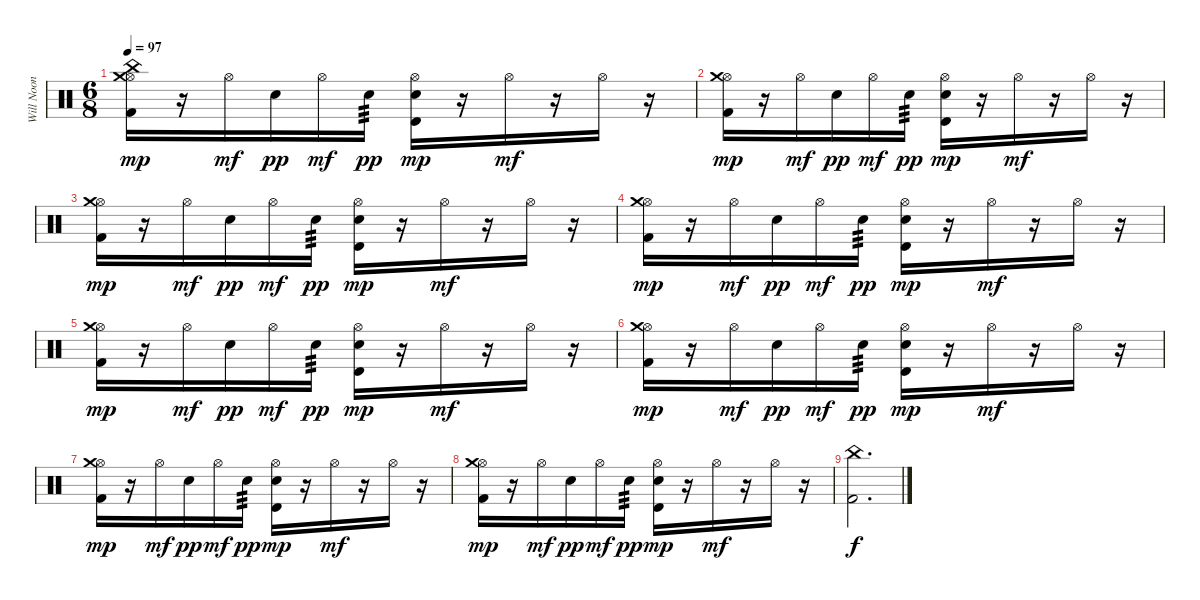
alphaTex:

\track ("Will Noon" "Will Noon") {instrument percussion}
\staff {score}
\articulation defaults
\ts (6 8)
\tempo 97
\clef neutral
\ks c
("Hi-Hat (open)" "Crash medium (hit)" "China (hit)" "Kick (hit) 2").16{dy mp} r.16 "Hi-Hat (open)".16{dy mf} "Electric Snare (hit)".16{dy pp} "Hi-Hat (open)".16{dy mf} "Electric Snare (hit)".16{tp 3 dy pp} ("Hi-Hat (open)" "Timbale high (hit)" "Electric Snare (hit)").16{dy mp} r.16 "Hi-Hat (open)".16{dy mf} r.16 "Hi-Hat (open)".16 r.16 |
("Hi-Hat (open)" "Crash medium (hit)" "Kick (hit) 2").16{dy mp} r.16 "Hi-Hat (open)".16{dy mf} "Electric Snare (hit)".16{dy pp} "Hi-Hat (open)".16{dy mf} "Electric Snare (hit)".16{tp 3 dy pp} ("Hi-Hat (open)" "Timbale high (hit)" "Electric Snare (hit)").16{dy mp} r.16 "Hi-Hat (open)".16{dy mf} r.16 "Hi-Hat (open)".16 r.16 |
("Hi-Hat (open)" "Crash medium (hit)" "Kick (hit) 2").16{dy mp} r.16 "Hi-Hat (open)".16{dy mf} "Electric Snare (hit)".16{dy pp} "Hi-Hat (open)".16{dy mf} "Electric Snare (hit)".16{tp 3 dy pp} ("Hi-Hat (open)" "Timbale high (hit)" "Electric Snare (hit)").16{dy mp} r.16 "Hi-Hat (open)".16{dy mf} r.16 "Hi-Hat (open)".16 r.16 |
("Hi-Hat (open)" "Crash medium (hit)" "Kick (hit) 2").16{dy mp} r.16 "Hi-Hat (open)".16{dy mf} "Electric Snare (hit)".16{dy pp} "Hi-Hat (open)".16{dy mf} "Electric Snare (hit)".16{tp 3 dy pp} ("Hi-Hat (open)" "Timbale high (hit)" "Electric Snare (hit)").16{dy mp} r.16 "Hi-Hat (open)".16{dy mf} r.16 "Hi-Hat (open)".16 r.16 |
("Hi-Hat (open)" "Crash medium (hit)" "Kick (hit) 2").16{dy mp} r.16 "Hi-Hat (open)".16{dy mf} "Electric Snare (hit)".16{dy pp} "Hi-Hat (open)".16{dy mf} "Electric Snare (hit)".16{tp 3 dy pp} ("Hi-Hat (open)" "Timbale high (hit)" "Electric Snare (hit)").16{dy mp} r.16 "Hi-Hat (open)".16{dy mf} r.16 "Hi-Hat (open)".16 r.16 |
("Hi-Hat (open)" "Crash medium (hit)" "Kick (hit) 2").16{dy mp} r.16 "Hi-Hat (open)".16{dy mf} "Electric Snare (hit)".16{dy pp} "Hi-Hat (open)".16{dy mf} "Electric Snare (hit)".16{tp 3 dy pp} ("Hi-Hat (open)" "Timbale high (hit)" "Electric Snare (hit)").16{dy mp} r.16 "Hi-Hat (open)".16{dy mf} r.16 "Hi-Hat (open)".16 r.16 |
("Hi-Hat (open)" "Crash medium (hit)" "Kick (hit) 2").16{dy mp} r.16 "Hi-Hat (open)".16{dy mf} "Electric Snare (hit)".16{dy pp} "Hi-Hat (open)".16{dy mf} "Electric Snare (hit)".16{tp 3 dy pp} ("Hi-Hat (open)" "Timbale high (hit)" "Electric Snare (hit)").16{dy mp} r.16 "Hi-Hat (open)".16{dy mf} r.16 "Hi-Hat (open)".16 r.16 |
("Hi-Hat (open)" "Crash medium (hit)" "Kick (hit) 2").16{dy mp} r.16 "Hi-Hat (open)".16{dy mf} "Electric Snare (hit)".16{dy pp} "Hi-Hat (open)".16{dy mf} "Electric Snare (hit)".16{tp 3 dy pp} ("Hi-Hat (open)" "Timbale high (hit)" "Electric Snare (hit)").16{dy mp} r.16 "Hi-Hat (open)".16{dy mf} r.16 "Hi-Hat (open)".16 r.16 |
("China (hit)" "Kick (hit) 2").2{d dy f}
